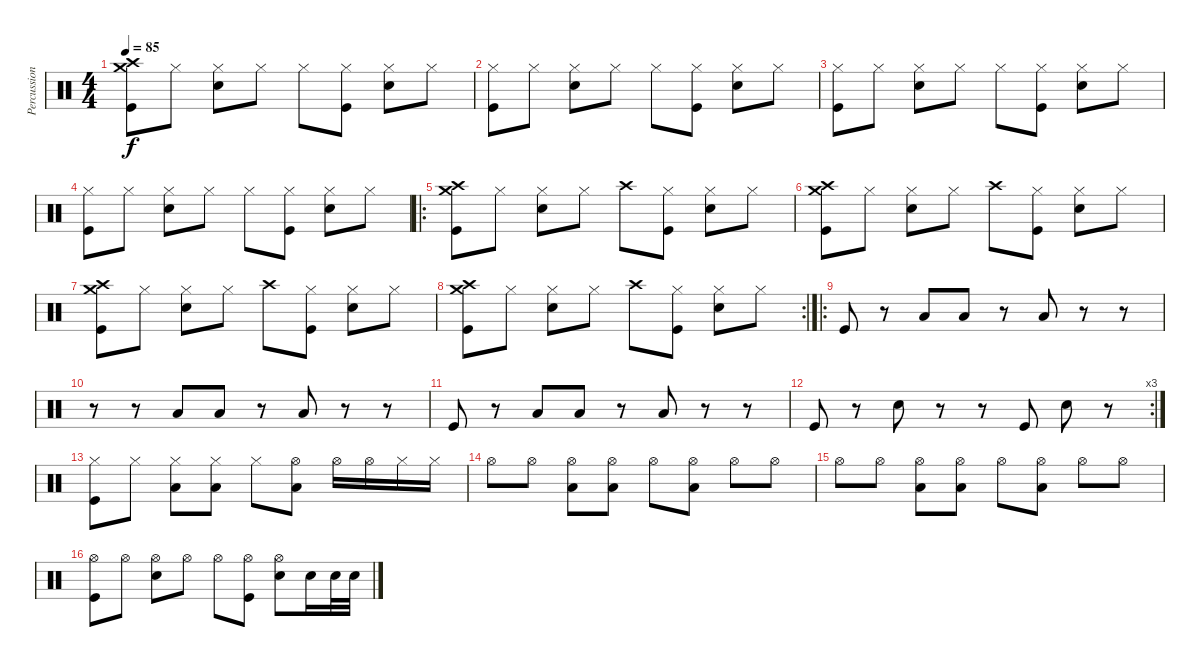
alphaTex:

\track ("Percussion" "Percussion") {instrument percussion}
\staff {score}
\articulation defaults
\ts (4 4)
\tempo 85
\clef neutral
\ks c
("Crash high (hit)" "Crash medium (hit)" "Kick (hit)").8{dy f} "Hi-Hat (closed)".8 ("Hi-Hat (closed)" "Snare (hit) 2").8 "Hi-Hat (closed)".8 "Hi-Hat (closed)".8 ("Hi-Hat (closed)" "Kick (hit)").8 ("Hi-Hat (closed)" "Snare (hit) 2").8 "Hi-Hat (closed)".8 |
("Hi-Hat (closed)" "Kick (hit)").8 "Hi-Hat (closed)".8 ("Hi-Hat (closed)" "Snare (hit) 2").8 "Hi-Hat (closed)".8 "Hi-Hat (closed)".8 ("Hi-Hat (closed)" "Kick (hit)").8 ("Hi-Hat (closed)" "Snare (hit) 2").8 "Hi-Hat (closed)".8 |
("Hi-Hat (closed)" "Kick (hit)").8 "Hi-Hat (closed)".8 ("Hi-Hat (closed)" "Snare (hit) 2").8 "Hi-Hat (closed)".8 "Hi-Hat (closed)".8 ("Hi-Hat (closed)" "Kick (hit)").8 ("Hi-Hat (closed)" "Snare (hit) 2").8 "Hi-Hat (closed)".8 |
("Hi-Hat (closed)" "Kick (hit)").8 "Hi-Hat (closed)".8 ("Hi-Hat (closed)" "Snare (hit) 2").8 "Hi-Hat (closed)".8 "Hi-Hat (closed)".8 ("Hi-Hat (closed)" "Kick (hit)").8 ("Hi-Hat (closed)" "Snare (hit) 2").8 "Hi-Hat (closed)".8 |
\ro
("Crash high (hit)" "Crash medium (hit)" "Kick (hit)").8 "Hi-Hat (closed)".8 ("Hi-Hat (closed)" "Snare (hit) 2").8 "Hi-Hat (closed)".8 "Crash high (hit)".8 ("Hi-Hat (closed)" "Kick (hit)").8 ("Hi-Hat (closed)" "Snare (hit) 2").8 "Hi-Hat (closed)".8 |
("Crash high (hit)" "Crash medium (hit)" "Kick (hit)").8 "Hi-Hat (closed)".8 ("Hi-Hat (closed)" "Snare (hit) 2").8 "Hi-Hat (closed)".8 "Crash high (hit)".8 ("Hi-Hat (closed)" "Kick (hit)").8 ("Hi-Hat (closed)" "Snare (hit) 2").8 "Hi-Hat (closed)".8 |
("Crash high (hit)" "Crash medium (hit)" "Kick (hit)").8 "Hi-Hat (closed)".8 ("Hi-Hat (closed)" "Snare (hit) 2").8 "Hi-Hat (closed)".8 "Crash high (hit)".8 ("Hi-Hat (closed)" "Kick (hit)").8 ("Hi-Hat (closed)" "Snare (hit) 2").8 "Hi-Hat (closed)".8 |
\rc 2
("Crash high (hit)" "Crash medium (hit)" "Kick (hit)").8 "Hi-Hat (closed)".8 ("Hi-Hat (closed)" "Snare (hit) 2").8 "Hi-Hat (closed)".8 "Crash high (hit)".8 ("Hi-Hat (closed)" "Kick (hit)").8 ("Hi-Hat (closed)" "Snare (hit) 2").8 "Hi-Hat (closed)".8 |
\ro "Kick (hit)".8
r.8 "Low Tom (hit)".8 "Low Tom (hit)".8 r.8 "Low Tom (hit)".8 r.8 r.8 |
r.8 r.8 "Low Tom (hit)".8 "Low Tom (hit)".8 r.8 "Low Tom (hit)".8 r.8 r.8 |
"Kick (hit)".8 r.8 "Low Tom (hit)".8 "Low Tom (hit)".8 r.8 "Low Tom (hit)".8 r.8 r.8 |
\rc 3 "Kick (hit)".8
r.8 "Snare (hit) 2".8 r.8 r.8 "Kick (hit)".8 "Snare (hit) 2".8 r.8 |
("Hi-Hat (closed)" "Kick (hit)").8 "Hi-Hat (closed)".8 ("Hi-Hat (closed)" "Low Tom (hit)").8 ("Hi-Hat (closed)" "Low Tom (hit)").8 "Hi-Hat (closed)".8 ("Hi-Hat (open)" "Low Tom (hit)").8 "Hi-Hat (open)".16 "Hi-Hat (open)".16 "Hi-Hat (closed)".16 "Hi-Hat (closed)".16 |
"Hi-Hat (open)".8 "Hi-Hat (open)".8 ("Hi-Hat (open)" "Low Tom (hit)").8 ("Hi-Hat (open)" "Low Tom (hit)").8 "Hi-Hat (open)".8 ("Hi-Hat (open)" "Low Tom (hit)").8 "Hi-Hat (open)".8 "Hi-Hat (open)".8 |
"Hi-Hat (open)".8 "Hi-Hat (open)".8 ("Hi-Hat (open)" "Low Tom (hit)").8 ("Hi-Hat (open)" "Low Tom (hit)").8 "Hi-Hat (open)".8 ("Hi-Hat (open)" "Low Tom (hit)").8 "Hi-Hat (open)".8 "Hi-Hat (open)".8 |
("Hi-Hat (open)" "Kick (hit)").8 "Hi-Hat (open)".8 ("Hi-Hat (open)" "Snare (hit) 2").8 "Hi-Hat (open)".8 "Hi-Hat (open)".8 ("Hi-Hat (open)" "Kick (hit)").8 ("Hi-Hat (open)" "Snare (hit) 2").8 "Snare (hit) 2".16 "Snare (hit) 2".32 "Snare (hit) 2".32
